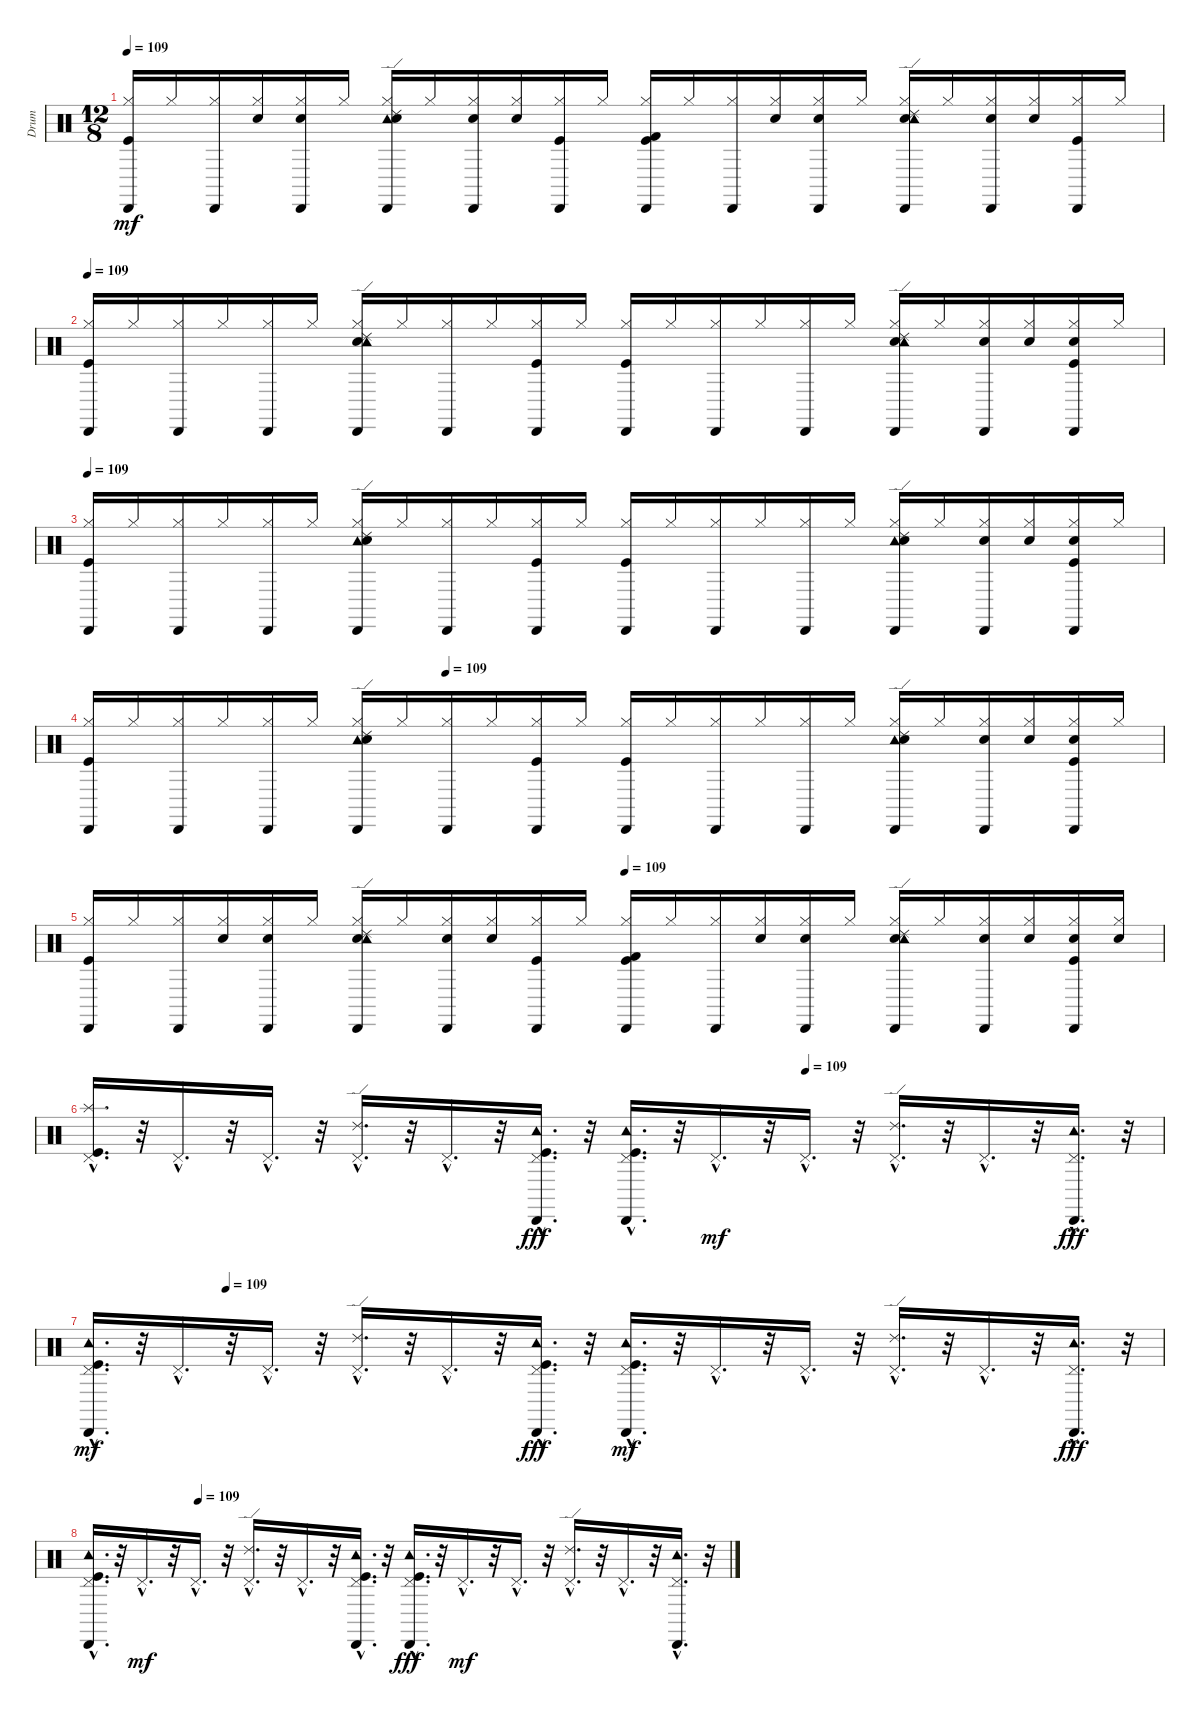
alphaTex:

\track ("Drum" "Drum") {instrument percussion}
\staff {score}
\articulation defaults
\ts (12 8)
\tempo 109
\clef neutral
\ks c
("Cabasa (hit)" "Kick (hit)" "Hi-Hat (closed)").16{dy mf} "Hi-Hat (closed)".16 ("Cabasa (hit)" "Hi-Hat (closed)").16 ("Electric Snare (hit)" "Hi-Hat (closed)").16 ("Cabasa (hit)" "Electric Snare (hit)" "Hi-Hat (closed)").16 "Hi-Hat (closed)".16 ("Cabasa (hit)" "Tambourine (hit)" "Snare (hit) 2" "Hi-Hat (closed)" "Ride (edge) 2").16 "Hi-Hat (closed)".16 ("Cabasa (hit)" "Electric Snare (hit)" "Hi-Hat (closed)").16 ("Hi-Hat (closed)" "Electric Snare (hit)").16 ("Kick (hit)" "Hi-Hat (closed)" "Cabasa (hit)").16 "Hi-Hat (closed)".16 ("Cabasa (hit)" "Kick (hit)" "Kick (hit) 2" "Hi-Hat (closed)").16 "Hi-Hat (closed)".16 ("Hi-Hat (closed)" "Cabasa (hit)").16 ("Hi-Hat (closed)" "Electric Snare (hit)").16 ("Cabasa (hit)" "Electric Snare (hit)" "Hi-Hat (closed)").16 "Hi-Hat (closed)".16 ("Ride (edge) 2" "Hi-Hat (closed)" "Snare (hit) 2" "Cabasa (hit)" "Tambourine (hit)").16 "Hi-Hat (closed)".16 ("Cabasa (hit)" "Hi-Hat (closed)" "Electric Snare (hit)").16 ("Hi-Hat (closed)" "Electric Snare (hit)").16 ("Kick (hit)" "Hi-Hat (closed)" "Cabasa (hit)").16 "Hi-Hat (closed)".16 |
\tempo 109
("Hi-Hat (closed)" "Kick (hit)" "Cabasa (hit)").16 "Hi-Hat (closed)".16 ("Hi-Hat (closed)" "Cabasa (hit)").16 "Hi-Hat (closed)".16 ("Hi-Hat (closed)" "Cabasa (hit)").16 "Hi-Hat (closed)".16 ("Hi-Hat (closed)" "Snare (hit) 2" "Tambourine (hit)" "Cabasa (hit)" "Ride (edge) 2").16 "Hi-Hat (closed)".16 ("Hi-Hat (closed)" "Cabasa (hit)").16 "Hi-Hat (closed)".16 ("Hi-Hat (closed)" "Cabasa (hit)" "Kick (hit)").16 "Hi-Hat (closed)".16 ("Hi-Hat (closed)" "Kick (hit)" "Cabasa (hit)").16 "Hi-Hat (closed)".16 ("Hi-Hat (closed)" "Cabasa (hit)").16 "Hi-Hat (closed)".16 ("Hi-Hat (closed)" "Cabasa (hit)").16 "Hi-Hat (closed)".16 ("Hi-Hat (closed)" "Snare (hit) 2" "Tambourine (hit)" "Cabasa (hit)" "Ride (edge) 2").16 "Hi-Hat (closed)".16 ("Hi-Hat (closed)" "Cabasa (hit)" "Electric Snare (hit)").16 ("Hi-Hat (closed)" "Electric Snare (hit)").16 ("Hi-Hat (closed)" "Cabasa (hit)" "Kick (hit)" "Electric Snare (hit)").16 "Hi-Hat (closed)".16 |
\tempo 109
("Cabasa (hit)" "Kick (hit)" "Hi-Hat (closed)").16 "Hi-Hat (closed)".16 ("Cabasa (hit)" "Hi-Hat (closed)").16 "Hi-Hat (closed)".16 ("Cabasa (hit)" "Hi-Hat (closed)").16 "Hi-Hat (closed)".16 ("Ride (edge) 2" "Cabasa (hit)" "Tambourine (hit)" "Snare (hit) 2" "Hi-Hat (closed)").16 "Hi-Hat (closed)".16 ("Cabasa (hit)" "Hi-Hat (closed)").16 "Hi-Hat (closed)".16 ("Kick (hit)" "Cabasa (hit)" "Hi-Hat (closed)").16 "Hi-Hat (closed)".16 ("Cabasa (hit)" "Kick (hit)" "Hi-Hat (closed)").16 "Hi-Hat (closed)".16 ("Cabasa (hit)" "Hi-Hat (closed)").16 "Hi-Hat (closed)".16 ("Cabasa (hit)" "Hi-Hat (closed)").16 "Hi-Hat (closed)".16 ("Ride (edge) 2" "Cabasa (hit)" "Tambourine (hit)" "Snare (hit) 2" "Hi-Hat (closed)").16 "Hi-Hat (closed)".16 ("Electric Snare (hit)" "Cabasa (hit)" "Hi-Hat (closed)").16 ("Electric Snare (hit)" "Hi-Hat (closed)").16 ("Electric Snare (hit)" "Kick (hit)" "Cabasa (hit)" "Hi-Hat (closed)").16 "Hi-Hat (closed)".16 |
\tempo (109 0.3333333333333333)
("Cabasa (hit)" "Kick (hit)" "Hi-Hat (closed)").16 "Hi-Hat (closed)".16 ("Cabasa (hit)" "Hi-Hat (closed)").16 "Hi-Hat (closed)".16 ("Cabasa (hit)" "Hi-Hat (closed)").16 "Hi-Hat (closed)".16 ("Ride (edge) 2" "Cabasa (hit)" "Tambourine (hit)" "Snare (hit) 2" "Hi-Hat (closed)").16 "Hi-Hat (closed)".16 ("Cabasa (hit)" "Hi-Hat (closed)").16 "Hi-Hat (closed)".16 ("Kick (hit)" "Cabasa (hit)" "Hi-Hat (closed)").16 "Hi-Hat (closed)".16 ("Cabasa (hit)" "Kick (hit)" "Hi-Hat (closed)").16 "Hi-Hat (closed)".16 ("Cabasa (hit)" "Hi-Hat (closed)").16 "Hi-Hat (closed)".16 ("Cabasa (hit)" "Hi-Hat (closed)").16 "Hi-Hat (closed)".16 ("Ride (edge) 2" "Cabasa (hit)" "Tambourine (hit)" "Snare (hit) 2" "Hi-Hat (closed)").16 "Hi-Hat (closed)".16 ("Electric Snare (hit)" "Cabasa (hit)" "Hi-Hat (closed)").16 ("Electric Snare (hit)" "Hi-Hat (closed)").16 ("Electric Snare (hit)" "Kick (hit)" "Cabasa (hit)" "Hi-Hat (closed)").16 "Hi-Hat (closed)".16 |
\tempo (109 0.5)
("Cabasa (hit)" "Kick (hit)" "Hi-Hat (closed)").16 "Hi-Hat (closed)".16 ("Cabasa (hit)" "Hi-Hat (closed)").16 ("Hi-Hat (closed)" "Electric Snare (hit)").16 ("Cabasa (hit)" "Hi-Hat (closed)" "Electric Snare (hit)").16 "Hi-Hat (closed)".16 ("Hi-Hat (closed)" "Ride (edge) 2" "Cabasa (hit)" "Snare (hit) 2" "Tambourine (hit)").16 "Hi-Hat (closed)".16 ("Cabasa (hit)" "Hi-Hat (closed)" "Electric Snare (hit)").16 ("Electric Snare (hit)" "Hi-Hat (closed)").16 ("Kick (hit)" "Cabasa (hit)" "Hi-Hat (closed)").16 "Hi-Hat (closed)".16 ("Kick (hit)" "Cabasa (hit)" "Hi-Hat (closed)" "Kick (hit) 2").16 "Hi-Hat (closed)".16 ("Hi-Hat (closed)" "Cabasa (hit)").16 ("Electric Snare (hit)" "Hi-Hat (closed)").16 ("Cabasa (hit)" "Hi-Hat (closed)" "Electric Snare (hit)").16 "Hi-Hat (closed)".16 ("Hi-Hat (closed)" "Ride (edge) 2" "Cabasa (hit)" "Snare (hit) 2" "Tambourine (hit)").16 "Hi-Hat (closed)".16 ("Cabasa (hit)" "Hi-Hat (closed)" "Electric Snare (hit)").16 ("Electric Snare (hit)" "Hi-Hat (closed)").16 ("Electric Snare (hit)" "Kick (hit)" "Cabasa (hit)" "Hi-Hat (closed)").16 ("Electric Snare (hit)" "Hi-Hat (closed)").16 |
\tempo (109 0.6666666666666666)
("Kick (hit)"{hac} "Splash (hit)"{hac} "Pedal Hi-Hat (hit)"{hac}).16{d} r.32 "Pedal Hi-Hat (hit)"{hac}.16{d} r.32 "Pedal Hi-Hat (hit)"{hac}.16{d} r.32 ("Ride (edge) 2"{hac} "Pedal Hi-Hat (hit)"{hac}).16{d} r.32 "Pedal Hi-Hat (hit)"{hac}.16{d} r.32 ("Tambourine (hit)"{hac} "Kick (hit)"{hac} "Pedal Hi-Hat (hit)"{hac} "Cabasa (hit)"{hac}).16{d dy fff} r.32 ("Kick (hit)"{hac} "Tambourine (hit)"{hac} "Pedal Hi-Hat (hit)"{hac} "Cabasa (hit)"{hac}).16{d} r.32 "Pedal Hi-Hat (hit)"{hac}.16{d dy mf} r.32 "Pedal Hi-Hat (hit)"{hac}.16{d} r.32 ("Pedal Hi-Hat (hit)"{hac} "Ride (edge) 2"{hac}).16{d} r.32 "Pedal Hi-Hat (hit)"{hac}.16{d} r.32 ("Pedal Hi-Hat (hit)"{hac} "Tambourine (hit)"{hac} "Cabasa (hit)"{hac}).16{d dy fff} r.32 |
\tempo (109 0.125)
("Tambourine (hit)"{hac} "Pedal Hi-Hat (hit)"{hac} "Cabasa (hit)"{hac} "Kick (hit)"{hac}).16{d dy mf} r.32 "Pedal Hi-Hat (hit)"{hac}.16{d} r.32 "Pedal Hi-Hat (hit)"{hac}.16{d} r.32 ("Pedal Hi-Hat (hit)"{hac} "Ride (edge) 2"{hac}).16{d} r.32 "Pedal Hi-Hat (hit)"{hac}.16{d} r.32 ("Tambourine (hit)"{hac} "Cabasa (hit)"{hac} "Kick (hit)"{hac} "Pedal Hi-Hat (hit)"{hac}).16{d dy fff} r.32 ("Pedal Hi-Hat (hit)"{hac} "Kick (hit)"{hac} "Cabasa (hit)"{hac} "Tambourine (hit)"{hac}).16{d dy mf} r.32 "Pedal Hi-Hat (hit)"{hac}.16{d} r.32 "Pedal Hi-Hat (hit)"{hac}.16{d} r.32 ("Ride (edge) 2"{hac} "Pedal Hi-Hat (hit)"{hac}).16{d} r.32 "Pedal Hi-Hat (hit)"{hac}.16{d} r.32 ("Tambourine (hit)"{hac} "Pedal Hi-Hat (hit)"{hac} "Cabasa (hit)"{hac}).16{d dy fff} r.32 |
\tempo (109 0.16666666666666666)
("Kick (hit)"{hac} "Tambourine (hit)"{hac} "Pedal Hi-Hat (hit)"{hac} "Cabasa (hit)"{hac}).16{d} r.32 "Pedal Hi-Hat (hit)"{hac}.16{d dy mf} r.32 "Pedal Hi-Hat (hit)"{hac}.16{d} r.32 ("Ride (edge) 2"{hac} "Pedal Hi-Hat (hit)"{hac}).16{d} r.32 "Pedal Hi-Hat (hit)"{hac}.16{d} r.32 ("Kick (hit)"{hac} "Cabasa (hit)"{hac} "Pedal Hi-Hat (hit)"{hac} "Tambourine (hit)"{hac}).16{d} r.32 ("Kick (hit)"{hac} "Tambourine (hit)"{hac} "Pedal Hi-Hat (hit)"{hac} "Cabasa (hit)"{hac}).16{d dy fff} r.32 "Pedal Hi-Hat (hit)"{hac}.16{d dy mf} r.32 "Pedal Hi-Hat (hit)"{hac}.16{d} r.32 ("Ride (edge) 2"{hac} "Pedal Hi-Hat (hit)"{hac}).16{d} r.32 "Pedal Hi-Hat (hit)"{hac}.16{d} r.32 ("Cabasa (hit)"{hac} "Pedal Hi-Hat (hit)"{hac} "Tambourine (hit)"{hac}).16{d} r.32
